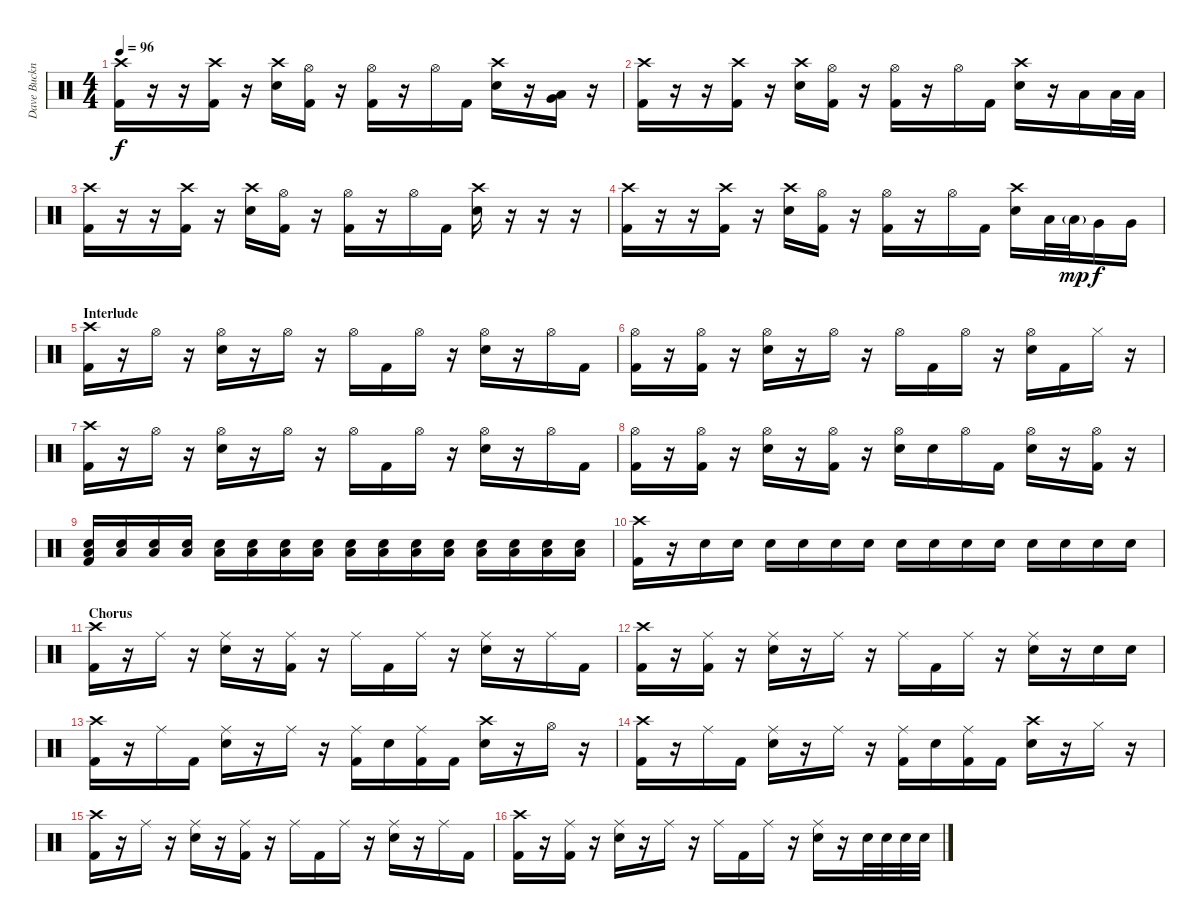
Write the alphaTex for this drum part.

\track ("Dave Buckner" "Dave Buckn") {instrument percussion}
\staff {score}
\articulation defaults
\ts (4 4)
\tempo 96
\clef neutral
\ks c
("Crash high (hit)" "Kick (hit) 2").16{dy f} r.16 r.16 ("Crash high (hit)" "Kick (hit) 2").16 r.16 ("Crash high (hit)" "Snare (hit) 2").16 ("Hi-Hat (open)" "Kick (hit) 2").16 r.16 ("Hi-Hat (open)" "Kick (hit) 2").16 r.16 "Hi-Hat (open)".16 "Kick (hit) 2".16 ("Crash high (hit)" "Snare (hit) 2").16 r.16 ("Low Tom (hit)" "Very Low Tom (hit)").16 r.16 |
("Crash high (hit)" "Kick (hit) 2").16 r.16 r.16 ("Crash high (hit)" "Kick (hit) 2").16 r.16 ("Crash high (hit)" "Snare (hit) 2").16 ("Hi-Hat (open)" "Kick (hit) 2").16 r.16 ("Hi-Hat (open)" "Kick (hit) 2").16 r.16 "Hi-Hat (open)".16 "Kick (hit) 2".16 ("Crash high (hit)" "Snare (hit) 2").16 r.16 "Low Tom (hit)".16 "Low Tom (hit)".32 "Low Tom (hit)".32 |
("Crash high (hit)" "Kick (hit) 2").16 r.16 r.16 ("Crash high (hit)" "Kick (hit) 2").16 r.16 ("Crash high (hit)" "Snare (hit) 2").16 ("Hi-Hat (open)" "Kick (hit) 2").16 r.16 ("Hi-Hat (open)" "Kick (hit) 2").16 r.16 "Hi-Hat (open)".16 "Kick (hit) 2".16 ("Crash high (hit)" "Snare (hit) 2").16 r.16 r.16 r.16 |
("Crash high (hit)" "Kick (hit) 2").16 r.16 r.16 ("Crash high (hit)" "Kick (hit) 2").16 r.16 ("Crash high (hit)" "Snare (hit) 2").16 ("Hi-Hat (open)" "Kick (hit) 2").16 r.16 ("Hi-Hat (open)" "Kick (hit) 2").16 r.16 "Hi-Hat (open)".16 "Kick (hit) 2".16 ("Crash high (hit)" "Snare (hit) 2").16 "Low Tom (hit)".32 "Low Tom (hit)"{g}.32{dy mp} "Very Low Tom (hit)".16{dy f} "Very Low Tom (hit)".16 |
\section ("" "Interlude")
("Crash high (hit)" "Kick (hit) 2").16 r.16 "Hi-Hat (open)".16 r.16 ("Hi-Hat (open)" "Snare (hit) 2").16 r.16 "Hi-Hat (open)".16 r.16 "Hi-Hat (open)".16 "Kick (hit) 2".16 "Hi-Hat (open)".16 r.16 ("Hi-Hat (open)" "Snare (hit) 2").16 r.16 "Hi-Hat (open)".16 "Kick (hit) 2".16 |
("Hi-Hat (open)" "Kick (hit) 2").16 r.16 ("Hi-Hat (open)" "Kick (hit) 2").16 r.16 ("Hi-Hat (open)" "Snare (hit) 2").16 r.16 "Hi-Hat (open)".16 r.16 "Hi-Hat (open)".16 "Kick (hit) 2".16 "Hi-Hat (open)".16 r.16 ("Hi-Hat (open)" "Snare (hit) 2").16 "Kick (hit) 2".16 "Hi-Hat (closed)".16 r.16 |
("Crash high (hit)" "Kick (hit) 2").16 r.16 "Hi-Hat (open)".16 r.16 ("Hi-Hat (open)" "Snare (hit) 2").16 r.16 "Hi-Hat (open)".16 r.16 "Hi-Hat (open)".16 "Kick (hit) 2".16 "Hi-Hat (open)".16 r.16 ("Hi-Hat (open)" "Snare (hit) 2").16 r.16 "Hi-Hat (open)".16 "Kick (hit) 2".16 |
("Hi-Hat (open)" "Kick (hit) 2").16 r.16 ("Hi-Hat (open)" "Kick (hit) 2").16 r.16 ("Hi-Hat (open)" "Snare (hit) 2").16 r.16 ("Hi-Hat (open)" "Kick (hit) 2").16 r.16 ("Hi-Hat (open)" "Snare (hit) 2").16 "Snare (hit) 2".16 "Hi-Hat (open)".16 "Kick (hit) 2".16 ("Hi-Hat (open)" "Snare (hit) 2").16 r.16 ("Hi-Hat (open)" "Kick (hit) 2").16 r.16 |
("Low Floor Tom (hit)" "Snare (hit) 2" "Kick (hit) 2").16 ("Low Floor Tom (hit)" "Snare (hit) 2").16 ("Low Floor Tom (hit)" "Snare (hit) 2").16 ("Low Floor Tom (hit)" "Snare (hit) 2").16 ("Low Floor Tom (hit)" "Snare (hit) 2").16 ("Low Floor Tom (hit)" "Snare (hit) 2").16 ("Low Floor Tom (hit)" "Snare (hit) 2").16 ("Low Floor Tom (hit)" "Snare (hit) 2").16 ("Low Floor Tom (hit)" "Snare (hit) 2").16 ("Low Floor Tom (hit)" "Snare (hit) 2").16 ("Low Floor Tom (hit)" "Snare (hit) 2").16 ("Low Floor Tom (hit)" "Snare (hit) 2").16 ("Low Floor Tom (hit)" "Snare (hit) 2").16 ("Low Floor Tom (hit)" "Snare (hit) 2").16 ("Low Floor Tom (hit)" "Snare (hit) 2").16 ("Low Floor Tom (hit)" "Snare (hit) 2").16 |
("Crash high (hit)" "Kick (hit) 2").16 r.16 "Snare (hit) 2".16 "Snare (hit) 2".16 "Snare (hit) 2".16 "Snare (hit) 2".16 "Snare (hit) 2".16 "Snare (hit) 2".16 "Snare (hit) 2".16 "Snare (hit) 2".16 "Snare (hit) 2".16 "Snare (hit) 2".16 "Snare (hit) 2".16 "Snare (hit) 2".16 "Snare (hit) 2".16 "Snare (hit) 2".16 |
\section ("" "Chorus")
("Crash high (hit)" "Kick (hit) 2").16 r.16 "Ride (middle)".16 r.16 ("Ride (middle)" "Snare (hit) 2").16 r.16 ("Ride (middle)" "Kick (hit) 2").16 r.16 "Ride (middle)".16 "Kick (hit) 2".16 "Ride (middle)".16 r.16 ("Ride (middle)" "Snare (hit) 2").16 r.16 "Ride (middle)".16 "Kick (hit) 2".16 |
("Crash high (hit)" "Kick (hit) 2").16 r.16 ("Ride (middle)" "Kick (hit) 2").16 r.16 ("Ride (middle)" "Snare (hit) 2").16 r.16 "Ride (middle)".16 r.16 "Ride (middle)".16 "Kick (hit) 2".16 "Ride (middle)".16 r.16 ("Ride (middle)" "Snare (hit) 2").16 r.16 "Snare (hit) 2".16 "Snare (hit) 2".16 |
("Crash high (hit)" "Kick (hit) 2").16 r.16 "Ride (middle)".16 "Kick (hit) 2".16 ("Ride (middle)" "Snare (hit) 2").16 r.16 "Ride (middle)".16 r.16 ("Ride (middle)" "Kick (hit) 2").16 "Snare (hit) 2".16 ("Ride (middle)" "Kick (hit) 2").16 "Kick (hit) 2".16 ("Crash high (hit)" "Snare (hit) 2").16 r.16 "Hi-Hat (open)".16 r.16 |
("Crash high (hit)" "Kick (hit) 2").16 r.16 "Ride (middle)".16 "Kick (hit) 2".16 ("Ride (middle)" "Snare (hit) 2").16 r.16 "Ride (middle)".16 r.16 ("Ride (middle)" "Kick (hit) 2").16 "Snare (hit) 2".16 ("Ride (middle)" "Kick (hit) 2").16 "Kick (hit) 2".16 ("Crash high (hit)" "Snare (hit) 2").16 r.16 "Hi-Hat (closed)".16 r.16 |
("Crash high (hit)" "Kick (hit) 2").16 r.16 "Ride (middle)".16 r.16 ("Ride (middle)" "Snare (hit) 2").16 r.16 ("Ride (middle)" "Kick (hit) 2").16 r.16 "Ride (middle)".16 "Kick (hit) 2".16 "Ride (middle)".16 r.16 ("Ride (middle)" "Snare (hit) 2").16 r.16 "Ride (middle)".16 "Kick (hit) 2".16 |
("Crash high (hit)" "Kick (hit) 2").16 r.16 ("Ride (middle)" "Kick (hit) 2").16 r.16 ("Ride (middle)" "Snare (hit) 2").16 r.16 "Ride (middle)".16 r.16 "Ride (middle)".16 "Kick (hit) 2".16 "Ride (middle)".16 r.16 ("Ride (middle)" "Snare (hit) 2").16 r.16 "Snare (hit) 2".32 "Snare (hit) 2".32 "Snare (hit) 2".32 "Snare (hit) 2".32
